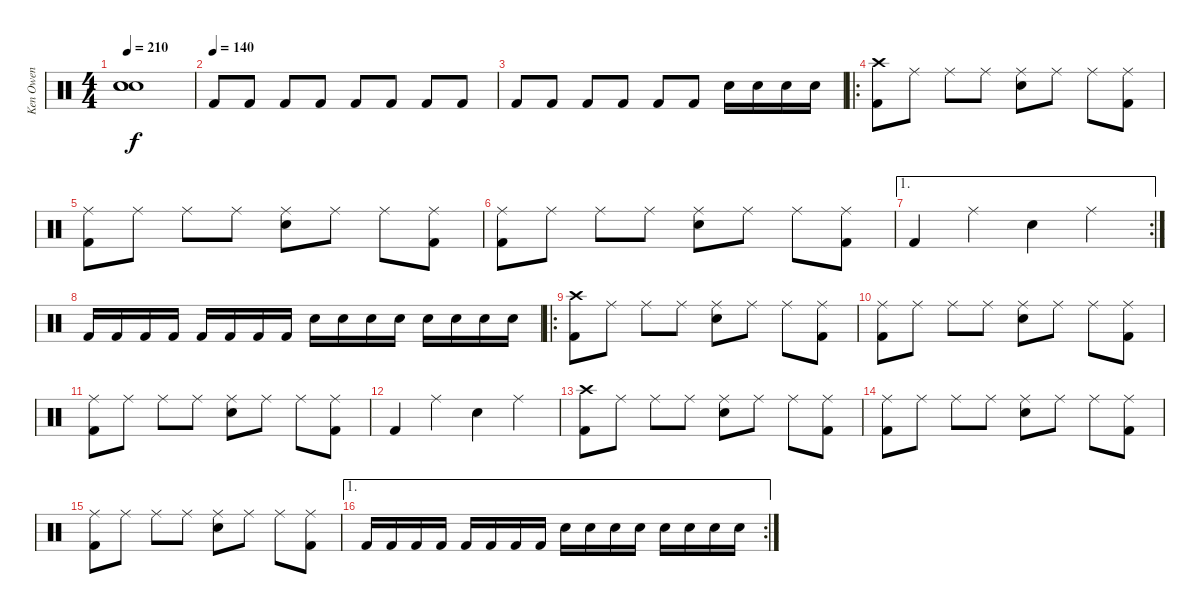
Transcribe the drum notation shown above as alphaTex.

\track ("Ken Owen" "Ken Owen") {instrument percussion}
\staff {score}
\articulation defaults
\ts (4 4)
\tempo 210
\clef neutral
\ks c
("Snare (hit)"{t} "Snare (hit)"{t} "Snare (hit)"{t}).1{dy f} |
\tempo (140)
"Kick (hit) 2".8 "Kick (hit) 2".8 "Kick (hit) 2".8 "Kick (hit) 2".8 "Kick (hit) 2".8 "Kick (hit) 2".8 "Kick (hit) 2".8 "Kick (hit) 2".8 |
"Kick (hit) 2".8 "Kick (hit) 2".8 "Kick (hit) 2".8 "Kick (hit) 2".8 "Kick (hit) 2".8 "Kick (hit) 2".8 "Snare (hit) 2".16 "Snare (hit) 2".16 "Snare (hit) 2".16 "Snare (hit) 2".16 |
\ro
("Crash high (hit)" "Kick (hit) 2").8 "Ride (middle)".8 "Ride (middle)".8 "Ride (middle)".8 ("Ride (middle)" "Snare (hit) 2").8 "Ride (middle)".8 "Ride (middle)".8 ("Ride (middle)" "Kick (hit) 2").8 |
("Ride (middle)" "Kick (hit) 2").8 "Ride (middle)".8 "Ride (middle)".8 "Ride (middle)".8 ("Ride (middle)" "Snare (hit) 2").8 "Ride (middle)".8 "Ride (middle)".8 ("Ride (middle)" "Kick (hit) 2").8 |
("Ride (middle)" "Kick (hit) 2").8 "Ride (middle)".8 "Ride (middle)".8 "Ride (middle)".8 ("Ride (middle)" "Snare (hit) 2").8 "Ride (middle)".8 "Ride (middle)".8 ("Ride (middle)" "Kick (hit) 2").8 |
\ae 1
\rc 2 "Kick (hit) 2".4 "Ride (middle)".4 "Snare (hit) 2".4 "Ride (middle)".4
|
"Kick (hit) 2".16 "Kick (hit) 2".16 "Kick (hit) 2".16 "Kick (hit) 2".16 "Kick (hit) 2".16 "Kick (hit) 2".16 "Kick (hit) 2".16 "Kick (hit) 2".16 "Snare (hit) 2".16 "Snare (hit) 2".16 "Snare (hit) 2".16 "Snare (hit) 2".16 "Snare (hit) 2".16 "Snare (hit) 2".16 "Snare (hit) 2".16 "Snare (hit) 2".16 |
\ro
("Crash high (hit)" "Kick (hit) 2").8 "Ride (middle)".8 "Ride (middle)".8 "Ride (middle)".8 ("Ride (middle)" "Snare (hit) 2").8 "Ride (middle)".8 "Ride (middle)".8 ("Ride (middle)" "Kick (hit) 2").8 |
("Ride (middle)" "Kick (hit) 2").8 "Ride (middle)".8 "Ride (middle)".8 "Ride (middle)".8 ("Ride (middle)" "Snare (hit) 2").8 "Ride (middle)".8 "Ride (middle)".8 ("Ride (middle)" "Kick (hit) 2").8 |
("Ride (middle)" "Kick (hit) 2").8 "Ride (middle)".8 "Ride (middle)".8 "Ride (middle)".8 ("Ride (middle)" "Snare (hit) 2").8 "Ride (middle)".8 "Ride (middle)".8 ("Ride (middle)" "Kick (hit) 2").8 |
"Kick (hit) 2".4 "Ride (middle)".4 "Snare (hit) 2".4 "Ride (middle)".4 |
("Crash high (hit)" "Kick (hit) 2").8 "Ride (middle)".8 "Ride (middle)".8 "Ride (middle)".8 ("Ride (middle)" "Snare (hit) 2").8 "Ride (middle)".8 "Ride (middle)".8 ("Ride (middle)" "Kick (hit) 2").8 |
("Ride (middle)" "Kick (hit) 2").8 "Ride (middle)".8 "Ride (middle)".8 "Ride (middle)".8 ("Ride (middle)" "Snare (hit) 2").8 "Ride (middle)".8 "Ride (middle)".8 ("Ride (middle)" "Kick (hit) 2").8 |
("Ride (middle)" "Kick (hit) 2").8 "Ride (middle)".8 "Ride (middle)".8 "Ride (middle)".8 ("Ride (middle)" "Snare (hit) 2").8 "Ride (middle)".8 "Ride (middle)".8 ("Ride (middle)" "Kick (hit) 2").8 |
\ae 1
\rc 2 "Kick (hit) 2".16 "Kick (hit) 2".16 "Kick (hit) 2".16 "Kick (hit) 2".16 "Kick (hit) 2".16 "Kick (hit) 2".16 "Kick (hit) 2".16 "Kick (hit) 2".16 "Snare (hit) 2".16 "Snare (hit) 2".16 "Snare (hit) 2".16 "Snare (hit) 2".16 "Snare (hit) 2".16 "Snare (hit) 2".16 "Snare (hit) 2".16 "Snare (hit) 2".16
